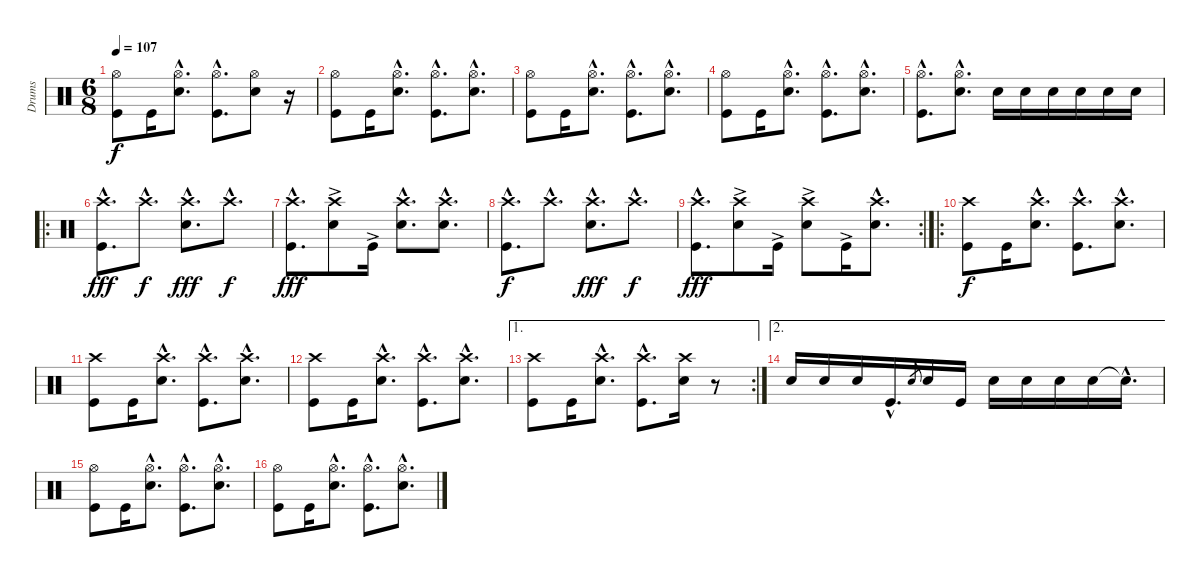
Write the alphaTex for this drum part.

\track ("Drums" "Drums") {instrument percussion}
\staff {score}
\articulation defaults
\ts (6 8)
\tempo 107
\clef neutral
\ks c
("Hi-Hat (open)" "Kick (hit)").8{dy f} "Kick (hit)".16 ("Hi-Hat (open)"{hac} "Snare (hit) 2"{hac}).8{d} ("Hi-Hat (open)"{hac} "Kick (hit)"{hac}).8{d} ("Hi-Hat (open)" "Snare (hit) 2").8 r.16 |
("Hi-Hat (open)" "Kick (hit)").8 "Kick (hit)".16 ("Hi-Hat (open)"{hac} "Snare (hit) 2"{hac}).8{d} ("Hi-Hat (open)"{hac} "Kick (hit)"{hac}).8{d} ("Hi-Hat (open)"{hac} "Snare (hit) 2"{hac}).8{d} |
("Hi-Hat (open)" "Kick (hit)").8 "Kick (hit)".16 ("Hi-Hat (open)"{hac} "Snare (hit) 2"{hac}).8{d} ("Hi-Hat (open)"{hac} "Kick (hit)"{hac}).8{d} ("Hi-Hat (open)"{hac} "Snare (hit) 2"{hac}).8{d} |
("Hi-Hat (open)" "Kick (hit)").8 "Kick (hit)".16 ("Hi-Hat (open)"{hac} "Snare (hit) 2"{hac}).8{d} ("Hi-Hat (open)"{hac} "Kick (hit)"{hac}).8{d} ("Hi-Hat (open)"{hac} "Snare (hit) 2"{hac}).8{d} |
("Hi-Hat (open)"{hac} "Kick (hit)"{hac}).8{d} ("Hi-Hat (open)"{hac} "Snare (hit) 2"{hac}).8{d} "Snare (hit) 2".16 "Snare (hit) 2".16 "Snare (hit) 2".16 "Snare (hit) 2".16 "Snare (hit) 2".16 "Snare (hit) 2".16 |
\ro
("Crash high (hit)"{hac} "Kick (hit)"{hac}).8{d dy fff} "Crash high (hit)"{hac}.8{d dy f} ("Crash high (hit)"{hac} "Snare (hit) 2"{hac}).8{d dy fff} "Crash high (hit)"{hac}.8{d dy f} |
("Crash high (hit)"{hac} "Kick (hit)"{hac}).8{d dy fff} ("Crash high (hit)" "Snare (hit) 2"{ac}).8 "Kick (hit)"{ac}.16 ("Crash high (hit)"{hac} "Snare (hit) 2"{hac}).8{d} ("Crash high (hit)"{hac} "Snare (hit) 2"{hac}).8{d} |
("Crash high (hit)"{hac} "Kick (hit)"{hac}).8{d dy f} "Crash high (hit)"{hac}.8{d} ("Crash high (hit)"{hac} "Snare (hit) 2"{hac}).8{d dy fff} "Crash high (hit)"{hac}.8{d dy f} |
\rc 2
("Crash high (hit)"{hac} "Kick (hit)"{hac}).8{d dy fff} ("Crash high (hit)" "Snare (hit) 2"{ac}).8 "Kick (hit)"{ac}.16 ("Crash high (hit)" "Snare (hit) 2"{ac}).8 "Kick (hit)"{ac}.16 ("Crash high (hit)"{hac} "Snare (hit) 2"{hac}).8{d} |
\ro
("Crash high (hit)" "Kick (hit)").8{dy f} "Kick (hit)".16 ("Crash high (hit)"{hac} "Snare (hit) 2"{hac}).8{d} ("Crash high (hit)"{hac} "Kick (hit)"{hac}).8{d} ("Crash high (hit)"{hac} "Snare (hit) 2"{hac}).8{d} |
("Crash high (hit)" "Kick (hit)").8 "Kick (hit)".16 ("Crash high (hit)"{hac} "Snare (hit) 2"{hac}).8{d} ("Crash high (hit)"{hac} "Kick (hit)"{hac}).8{d} ("Crash high (hit)"{hac} "Snare (hit) 2"{hac}).8{d} |
("Crash high (hit)" "Kick (hit)").8 "Kick (hit)".16 ("Crash high (hit)"{hac} "Snare (hit) 2"{hac}).8{d} ("Crash high (hit)"{hac} "Kick (hit)"{hac}).8{d} ("Crash high (hit)"{hac} "Snare (hit) 2"{hac}).8{d} |
\ae 1
\rc 2
("Crash high (hit)" "Kick (hit)").8 "Kick (hit)".16 ("Crash high (hit)"{hac} "Snare (hit) 2"{hac}).8{d} ("Crash high (hit)"{hac} "Kick (hit)"{hac}).8{d} ("Crash high (hit)" "Snare (hit) 2").16 r.8 |
\ae 2 "Snare (hit) 2".16 "Snare (hit) 2".16 "Snare (hit) 2".16 "Kick (hit)"{hac}.16{d} "Snare (hit) 2".8{gr} "Snare (hit) 2".16 "Kick (hit)".16 "Snare (hit) 2".16 "Snare (hit) 2".16 "Snare (hit) 2".16 "Snare (hit) 2".16 "Snare (hit)"{hac t}.16{d}
|
("Hi-Hat (open)" "Kick (hit)").8 "Kick (hit)".16 ("Hi-Hat (open)"{hac} "Snare (hit) 2"{hac}).8{d} ("Hi-Hat (open)"{hac} "Kick (hit)"{hac}).8{d} ("Hi-Hat (open)"{hac} "Snare (hit) 2"{hac}).8{d} |
("Hi-Hat (open)" "Kick (hit)").8 "Kick (hit)".16 ("Hi-Hat (open)"{hac} "Snare (hit) 2"{hac}).8{d} ("Hi-Hat (open)"{hac} "Kick (hit)"{hac}).8{d} ("Hi-Hat (open)"{hac} "Snare (hit) 2"{hac}).8{d}
